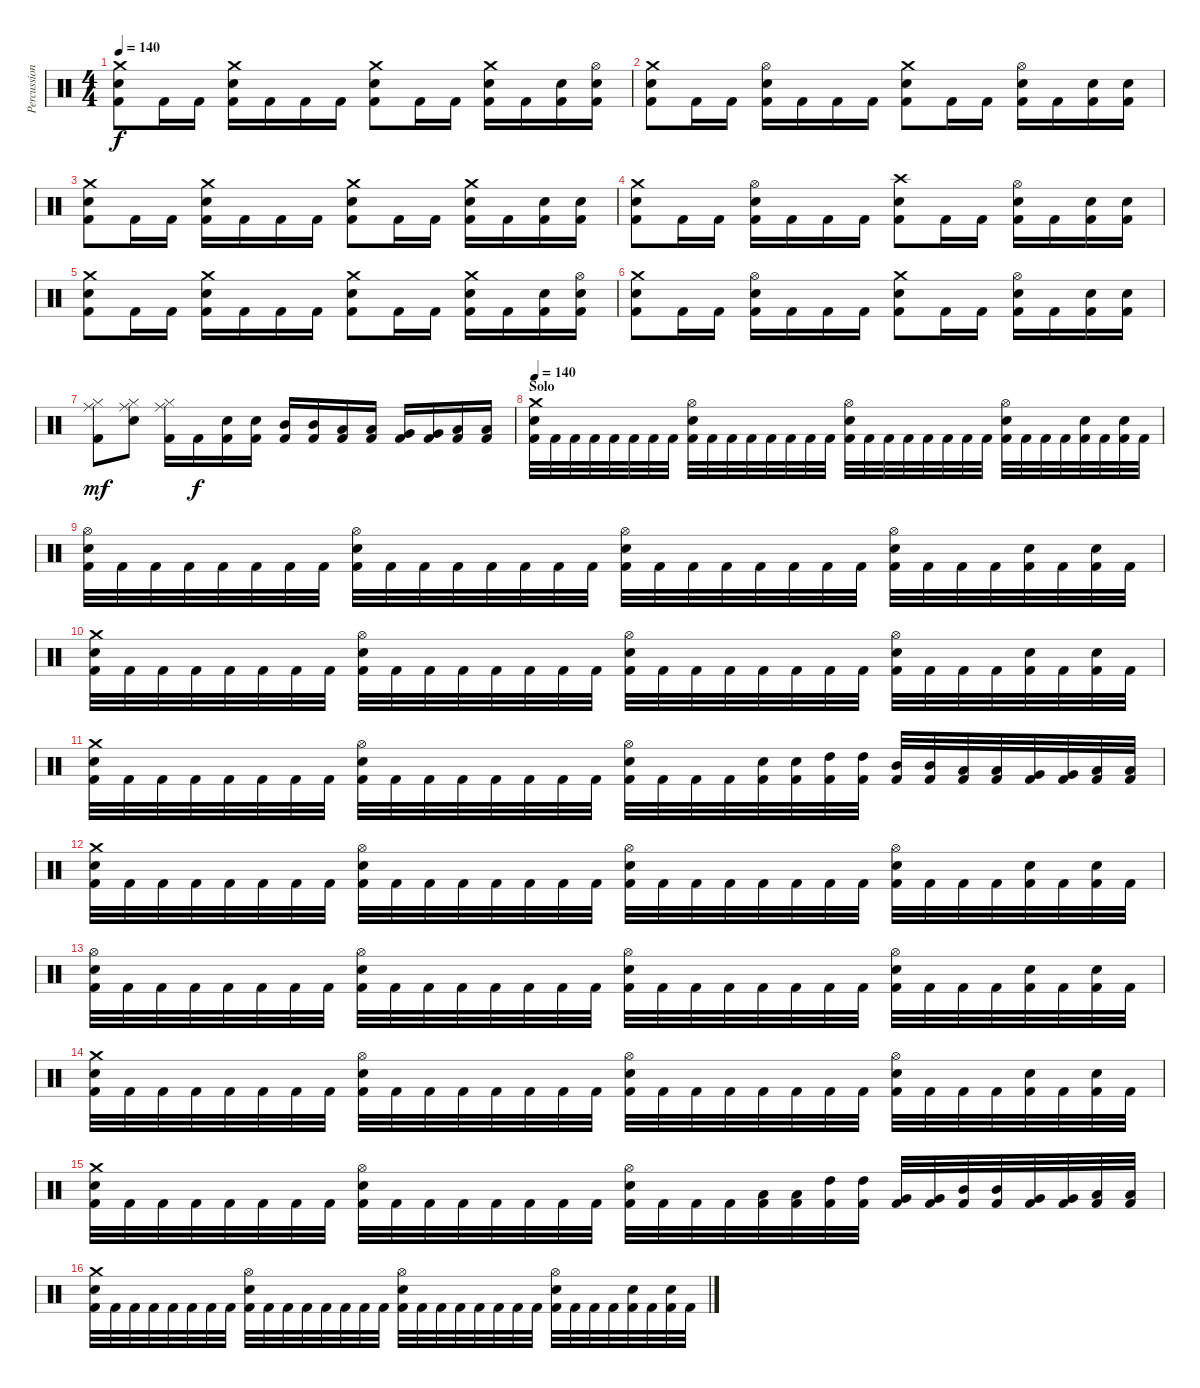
\track ("Percussion" "Percussion") {instrument percussion}
\staff {score}
\articulation defaults
\ts (4 4)
\tempo 140
\clef neutral
\ks c
("Crash medium (hit)" "Snare (hit) 2" "Kick (hit) 2").8{dy f} "Kick (hit) 2".16 "Kick (hit) 2".16 ("Crash medium (hit)" "Snare (hit) 2" "Kick (hit) 2").16 "Kick (hit) 2".16 "Kick (hit) 2".16 "Kick (hit) 2".16 ("Crash medium (hit)" "Snare (hit) 2" "Kick (hit) 2").8 "Kick (hit) 2".16 "Kick (hit) 2".16 ("Crash medium (hit)" "Snare (hit) 2" "Kick (hit) 2").16 "Kick (hit) 2".16 ("Snare (hit) 2" "Kick (hit) 2").16 ("Hi-Hat (open)" "Snare (hit) 2" "Kick (hit) 2").16 |
("Crash medium (hit)" "Snare (hit) 2" "Kick (hit) 2").8 "Kick (hit) 2".16 "Kick (hit) 2".16 ("Hi-Hat (open)" "Snare (hit) 2" "Kick (hit) 2").16 "Kick (hit) 2".16 "Kick (hit) 2".16 "Kick (hit) 2".16 ("Crash medium (hit)" "Snare (hit) 2" "Kick (hit) 2").8 "Kick (hit) 2".16 "Kick (hit) 2".16 ("Hi-Hat (open)" "Snare (hit) 2" "Kick (hit) 2").16 "Kick (hit) 2".16 ("Snare (hit) 2" "Kick (hit) 2").16 ("Snare (hit) 2" "Kick (hit) 2").16 |
("Crash medium (hit)" "Snare (hit) 2" "Kick (hit) 2").8 "Kick (hit) 2".16 "Kick (hit) 2".16 ("Crash medium (hit)" "Snare (hit) 2" "Kick (hit) 2").16 "Kick (hit) 2".16 "Kick (hit) 2".16 "Kick (hit) 2".16 ("Crash medium (hit)" "Snare (hit) 2" "Kick (hit) 2").8 "Kick (hit) 2".16 "Kick (hit) 2".16 ("Crash medium (hit)" "Snare (hit) 2" "Kick (hit) 2").16 "Kick (hit) 2".16 ("Snare (hit) 2" "Kick (hit) 2").16 ("Snare (hit) 2" "Kick (hit) 2").16 |
("Crash medium (hit)" "Snare (hit) 2" "Kick (hit) 2").8 "Kick (hit) 2".16 "Kick (hit) 2".16 ("Hi-Hat (open)" "Snare (hit) 2" "Kick (hit) 2").16 "Kick (hit) 2".16 "Kick (hit) 2".16 "Kick (hit) 2".16 ("Crash high (hit)" "Snare (hit) 2" "Kick (hit) 2").8 "Kick (hit) 2".16 "Kick (hit) 2".16 ("Hi-Hat (open)" "Snare (hit) 2" "Kick (hit) 2").16 "Kick (hit) 2".16 ("Snare (hit) 2" "Kick (hit) 2").16 ("Snare (hit) 2" "Kick (hit) 2").16 |
("Crash medium (hit)" "Snare (hit) 2" "Kick (hit) 2").8 "Kick (hit) 2".16 "Kick (hit) 2".16 ("Crash medium (hit)" "Snare (hit) 2" "Kick (hit) 2").16 "Kick (hit) 2".16 "Kick (hit) 2".16 "Kick (hit) 2".16 ("Crash medium (hit)" "Snare (hit) 2" "Kick (hit) 2").8 "Kick (hit) 2".16 "Kick (hit) 2".16 ("Crash medium (hit)" "Snare (hit) 2" "Kick (hit) 2").16 "Kick (hit) 2".16 ("Snare (hit) 2" "Kick (hit) 2").16 ("Hi-Hat (open)" "Snare (hit) 2" "Kick (hit) 2").16 |
("Crash medium (hit)" "Snare (hit) 2" "Kick (hit) 2").8 "Kick (hit) 2".16 "Kick (hit) 2".16 ("Hi-Hat (open)" "Snare (hit) 2" "Kick (hit) 2").16 "Kick (hit) 2".16 "Kick (hit) 2".16 "Kick (hit) 2".16 ("Crash medium (hit)" "Snare (hit) 2" "Kick (hit) 2").8 "Kick (hit) 2".16 "Kick (hit) 2".16 ("Hi-Hat (open)" "Snare (hit) 2" "Kick (hit) 2").16 "Kick (hit) 2".16 ("Snare (hit) 2" "Kick (hit) 2").16 ("Snare (hit) 2" "Kick (hit) 2").16 |
("Hi-Hat (closed)" "Ride (middle)" "Kick (hit) 2").8{dy mf} ("Hi-Hat (closed)" "Ride (middle)" "Snare (hit) 2").8 ("Hi-Hat (closed)" "Ride (middle)" "Kick (hit) 2").16 "Kick (hit) 2".16{dy f} ("Snare (hit) 2" "Kick (hit) 2").16 ("Snare (hit) 2" "Kick (hit) 2").16 ("Mid Tom (hit)" "Kick (hit) 2").16 ("Mid Tom (hit)" "Kick (hit) 2").16 ("Low Tom (hit)" "Kick (hit) 2").16 ("Low Tom (hit)" "Kick (hit) 2").16 ("Very Low Tom (hit)" "Kick (hit) 2").16 ("Very Low Tom (hit)" "Kick (hit) 2").16 ("Low Floor Tom (hit)" "Kick (hit) 2").16 ("Low Floor Tom (hit)" "Kick (hit) 2").16 |
\section ("" "Solo")
\tempo 140
("Crash medium (hit)" "Snare (hit) 2" "Kick (hit) 2").32 "Kick (hit) 2".32 "Kick (hit) 2".32 "Kick (hit) 2".32 "Kick (hit) 2".32 "Kick (hit) 2".32 "Kick (hit) 2".32 "Kick (hit) 2".32 ("Hi-Hat (open)" "Snare (hit) 2" "Kick (hit) 2").32 "Kick (hit) 2".32 "Kick (hit) 2".32 "Kick (hit) 2".32 "Kick (hit) 2".32 "Kick (hit) 2".32 "Kick (hit) 2".32 "Kick (hit) 2".32 ("Hi-Hat (open)" "Snare (hit) 2" "Kick (hit) 2").32 "Kick (hit) 2".32 "Kick (hit) 2".32 "Kick (hit) 2".32 "Kick (hit) 2".32 "Kick (hit) 2".32 "Kick (hit) 2".32 "Kick (hit) 2".32 ("Hi-Hat (open)" "Snare (hit) 2" "Kick (hit) 2").32 "Kick (hit) 2".32 "Kick (hit) 2".32 "Kick (hit) 2".32 ("Snare (hit) 2" "Kick (hit) 2").32 "Kick (hit) 2".32 ("Snare (hit) 2" "Kick (hit) 2").32 "Kick (hit) 2".32 |
("Hi-Hat (open)" "Snare (hit) 2" "Kick (hit) 2").32 "Kick (hit) 2".32 "Kick (hit) 2".32 "Kick (hit) 2".32 "Kick (hit) 2".32 "Kick (hit) 2".32 "Kick (hit) 2".32 "Kick (hit) 2".32 ("Hi-Hat (open)" "Snare (hit) 2" "Kick (hit) 2").32 "Kick (hit) 2".32 "Kick (hit) 2".32 "Kick (hit) 2".32 "Kick (hit) 2".32 "Kick (hit) 2".32 "Kick (hit) 2".32 "Kick (hit) 2".32 ("Hi-Hat (open)" "Snare (hit) 2" "Kick (hit) 2").32 "Kick (hit) 2".32 "Kick (hit) 2".32 "Kick (hit) 2".32 "Kick (hit) 2".32 "Kick (hit) 2".32 "Kick (hit) 2".32 "Kick (hit) 2".32 ("Hi-Hat (open)" "Snare (hit) 2" "Kick (hit) 2").32 "Kick (hit) 2".32 "Kick (hit) 2".32 "Kick (hit) 2".32 ("Snare (hit) 2" "Kick (hit) 2").32 "Kick (hit) 2".32 ("Snare (hit) 2" "Kick (hit) 2").32 "Kick (hit) 2".32 |
("Crash medium (hit)" "Snare (hit) 2" "Kick (hit) 2").32 "Kick (hit) 2".32 "Kick (hit) 2".32 "Kick (hit) 2".32 "Kick (hit) 2".32 "Kick (hit) 2".32 "Kick (hit) 2".32 "Kick (hit) 2".32 ("Hi-Hat (open)" "Snare (hit) 2" "Kick (hit) 2").32 "Kick (hit) 2".32 "Kick (hit) 2".32 "Kick (hit) 2".32 "Kick (hit) 2".32 "Kick (hit) 2".32 "Kick (hit) 2".32 "Kick (hit) 2".32 ("Hi-Hat (open)" "Snare (hit) 2" "Kick (hit) 2").32 "Kick (hit) 2".32 "Kick (hit) 2".32 "Kick (hit) 2".32 "Kick (hit) 2".32 "Kick (hit) 2".32 "Kick (hit) 2".32 "Kick (hit) 2".32 ("Hi-Hat (open)" "Snare (hit) 2" "Kick (hit) 2").32 "Kick (hit) 2".32 "Kick (hit) 2".32 "Kick (hit) 2".32 ("Snare (hit) 2" "Kick (hit) 2").32 "Kick (hit) 2".32 ("Snare (hit) 2" "Kick (hit) 2").32 "Kick (hit) 2".32 |
("Crash medium (hit)" "Snare (hit) 2" "Kick (hit) 2").32 "Kick (hit) 2".32 "Kick (hit) 2".32 "Kick (hit) 2".32 "Kick (hit) 2".32 "Kick (hit) 2".32 "Kick (hit) 2".32 "Kick (hit) 2".32 ("Hi-Hat (open)" "Snare (hit) 2" "Kick (hit) 2").32 "Kick (hit) 2".32 "Kick (hit) 2".32 "Kick (hit) 2".32 "Kick (hit) 2".32 "Kick (hit) 2".32 "Kick (hit) 2".32 "Kick (hit) 2".32 ("Hi-Hat (open)" "Snare (hit) 2" "Kick (hit) 2").32 "Kick (hit) 2".32 "Kick (hit) 2".32 "Kick (hit) 2".32 ("Snare (hit) 2" "Kick (hit) 2").32 ("Snare (hit) 2" "Kick (hit) 2").32 ("High Tom (hit)" "Kick (hit) 2").32 ("High Tom (hit)" "Kick (hit) 2").32 ("Mid Tom (hit)" "Kick (hit) 2").32 ("Mid Tom (hit)" "Kick (hit) 2").32 ("Low Tom (hit)" "Kick (hit) 2").32 ("Low Tom (hit)" "Kick (hit) 2").32 ("Very Low Tom (hit)" "Kick (hit) 2").32 ("Very Low Tom (hit)" "Kick (hit) 2").32 ("Low Floor Tom (hit)" "Kick (hit) 2").32 ("Low Floor Tom (hit)" "Kick (hit) 2").32 |
("Crash medium (hit)" "Snare (hit) 2" "Kick (hit) 2").32 "Kick (hit) 2".32 "Kick (hit) 2".32 "Kick (hit) 2".32 "Kick (hit) 2".32 "Kick (hit) 2".32 "Kick (hit) 2".32 "Kick (hit) 2".32 ("Hi-Hat (open)" "Snare (hit) 2" "Kick (hit) 2").32 "Kick (hit) 2".32 "Kick (hit) 2".32 "Kick (hit) 2".32 "Kick (hit) 2".32 "Kick (hit) 2".32 "Kick (hit) 2".32 "Kick (hit) 2".32 ("Hi-Hat (open)" "Snare (hit) 2" "Kick (hit) 2").32 "Kick (hit) 2".32 "Kick (hit) 2".32 "Kick (hit) 2".32 "Kick (hit) 2".32 "Kick (hit) 2".32 "Kick (hit) 2".32 "Kick (hit) 2".32 ("Hi-Hat (open)" "Snare (hit) 2" "Kick (hit) 2").32 "Kick (hit) 2".32 "Kick (hit) 2".32 "Kick (hit) 2".32 ("Snare (hit) 2" "Kick (hit) 2").32 "Kick (hit) 2".32 ("Snare (hit) 2" "Kick (hit) 2").32 "Kick (hit) 2".32 |
("Hi-Hat (open)" "Snare (hit) 2" "Kick (hit) 2").32 "Kick (hit) 2".32 "Kick (hit) 2".32 "Kick (hit) 2".32 "Kick (hit) 2".32 "Kick (hit) 2".32 "Kick (hit) 2".32 "Kick (hit) 2".32 ("Hi-Hat (open)" "Snare (hit) 2" "Kick (hit) 2").32 "Kick (hit) 2".32 "Kick (hit) 2".32 "Kick (hit) 2".32 "Kick (hit) 2".32 "Kick (hit) 2".32 "Kick (hit) 2".32 "Kick (hit) 2".32 ("Hi-Hat (open)" "Snare (hit) 2" "Kick (hit) 2").32 "Kick (hit) 2".32 "Kick (hit) 2".32 "Kick (hit) 2".32 "Kick (hit) 2".32 "Kick (hit) 2".32 "Kick (hit) 2".32 "Kick (hit) 2".32 ("Hi-Hat (open)" "Snare (hit) 2" "Kick (hit) 2").32 "Kick (hit) 2".32 "Kick (hit) 2".32 "Kick (hit) 2".32 ("Snare (hit) 2" "Kick (hit) 2").32 "Kick (hit) 2".32 ("Snare (hit) 2" "Kick (hit) 2").32 "Kick (hit) 2".32 |
("Crash medium (hit)" "Snare (hit) 2" "Kick (hit) 2").32 "Kick (hit) 2".32 "Kick (hit) 2".32 "Kick (hit) 2".32 "Kick (hit) 2".32 "Kick (hit) 2".32 "Kick (hit) 2".32 "Kick (hit) 2".32 ("Hi-Hat (open)" "Snare (hit) 2" "Kick (hit) 2").32 "Kick (hit) 2".32 "Kick (hit) 2".32 "Kick (hit) 2".32 "Kick (hit) 2".32 "Kick (hit) 2".32 "Kick (hit) 2".32 "Kick (hit) 2".32 ("Hi-Hat (open)" "Snare (hit) 2" "Kick (hit) 2").32 "Kick (hit) 2".32 "Kick (hit) 2".32 "Kick (hit) 2".32 "Kick (hit) 2".32 "Kick (hit) 2".32 "Kick (hit) 2".32 "Kick (hit) 2".32 ("Hi-Hat (open)" "Snare (hit) 2" "Kick (hit) 2").32 "Kick (hit) 2".32 "Kick (hit) 2".32 "Kick (hit) 2".32 ("Snare (hit) 2" "Kick (hit) 2").32 "Kick (hit) 2".32 ("Snare (hit) 2" "Kick (hit) 2").32 "Kick (hit) 2".32 |
("Crash medium (hit)" "Snare (hit) 2" "Kick (hit) 2").32 "Kick (hit) 2".32 "Kick (hit) 2".32 "Kick (hit) 2".32 "Kick (hit) 2".32 "Kick (hit) 2".32 "Kick (hit) 2".32 "Kick (hit) 2".32 ("Hi-Hat (open)" "Snare (hit) 2" "Kick (hit) 2").32 "Kick (hit) 2".32 "Kick (hit) 2".32 "Kick (hit) 2".32 "Kick (hit) 2".32 "Kick (hit) 2".32 "Kick (hit) 2".32 "Kick (hit) 2".32 ("Hi-Hat (open)" "Snare (hit) 2" "Kick (hit) 2").32 "Kick (hit) 2".32 "Kick (hit) 2".32 "Kick (hit) 2".32 ("Low Floor Tom (hit)" "Kick (hit) 2").32 ("Low Floor Tom (hit)" "Kick (hit) 2").32 ("High Tom (hit)" "Kick (hit) 2").32 ("High Tom (hit)" "Kick (hit) 2").32 ("Very Low Tom (hit)" "Kick (hit) 2").32 ("Very Low Tom (hit)" "Kick (hit) 2").32 ("Mid Tom (hit)" "Kick (hit) 2").32 ("Mid Tom (hit)" "Kick (hit) 2").32 ("Very Low Tom (hit)" "Kick (hit) 2").32 ("Very Low Tom (hit)" "Kick (hit) 2").32 ("Low Tom (hit)" "Kick (hit) 2").32 ("Low Tom (hit)" "Kick (hit) 2").32 |
("Crash medium (hit)" "Snare (hit) 2" "Kick (hit) 2").32 "Kick (hit) 2".32 "Kick (hit) 2".32 "Kick (hit) 2".32 "Kick (hit) 2".32 "Kick (hit) 2".32 "Kick (hit) 2".32 "Kick (hit) 2".32 ("Hi-Hat (open)" "Snare (hit) 2" "Kick (hit) 2").32 "Kick (hit) 2".32 "Kick (hit) 2".32 "Kick (hit) 2".32 "Kick (hit) 2".32 "Kick (hit) 2".32 "Kick (hit) 2".32 "Kick (hit) 2".32 ("Hi-Hat (open)" "Snare (hit) 2" "Kick (hit) 2").32 "Kick (hit) 2".32 "Kick (hit) 2".32 "Kick (hit) 2".32 "Kick (hit) 2".32 "Kick (hit) 2".32 "Kick (hit) 2".32 "Kick (hit) 2".32 ("Hi-Hat (open)" "Snare (hit) 2" "Kick (hit) 2").32 "Kick (hit) 2".32 "Kick (hit) 2".32 "Kick (hit) 2".32 ("Snare (hit) 2" "Kick (hit) 2").32 "Kick (hit) 2".32 ("Snare (hit) 2" "Kick (hit) 2").32 "Kick (hit) 2".32
